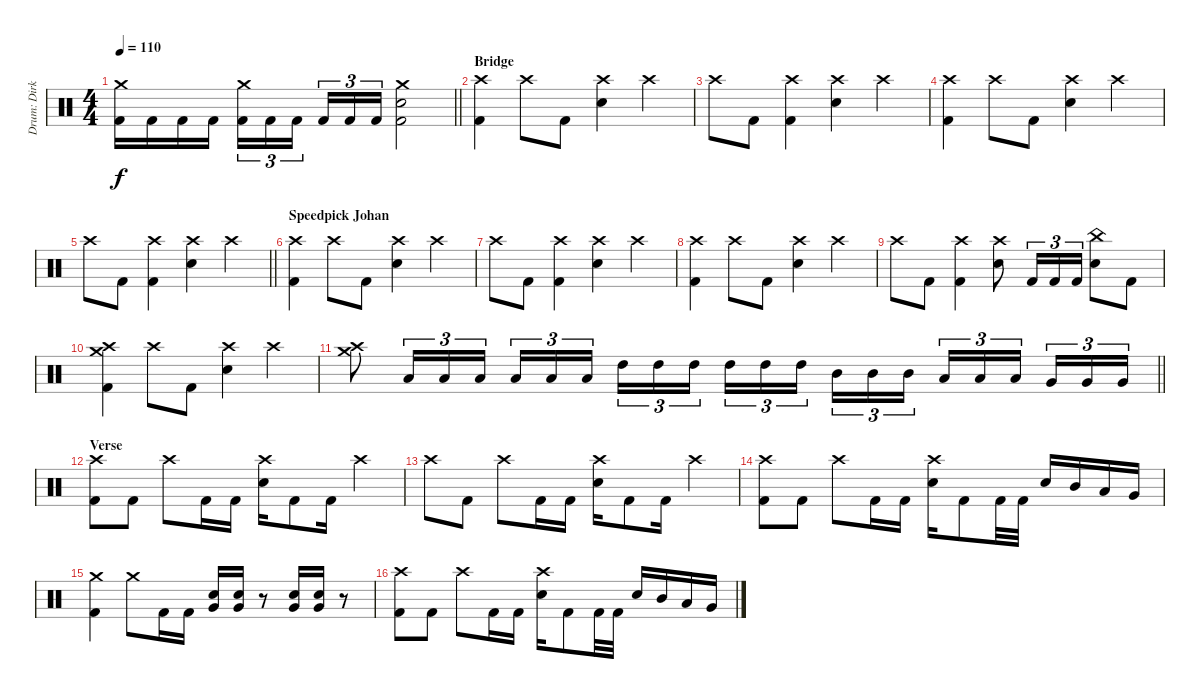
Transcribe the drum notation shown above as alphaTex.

\track ("Drum: Dirk" "Drum: Dirk") {instrument percussion}
\staff {score}
\articulation defaults
\ts (4 4)
\tempo 110
\clef neutral
\barLineRight lightlight
\ks c
("Crash medium (hit)" "Kick (hit) 2").16{dy f} "Kick (hit) 2".16 "Kick (hit) 2".16 "Kick (hit) 2".16 ("Crash medium (hit)" "Kick (hit) 2").16{tu (3 2)} "Kick (hit) 2".16{tu (3 2)} "Kick (hit) 2".16{tu (3 2) beam splitsecondary} "Kick (hit) 2".16{tu (3 2)} "Kick (hit) 2".16{tu (3 2)} "Kick (hit) 2".16{tu (3 2)} ("Crash medium (hit)" "Electric Snare (hit)" "Kick (hit) 2").2 |
\section ("" "Bridge")
("Crash high (hit)" "Kick (hit) 2").4 "Crash high (hit)".8 "Kick (hit) 2".8 ("Crash high (hit)" "Electric Snare (hit)").4 "Crash high (hit)".4 |
"Crash high (hit)".8 "Kick (hit) 2".8 ("Crash high (hit)" "Kick (hit) 2").4 ("Crash high (hit)" "Electric Snare (hit)").4 "Crash high (hit)".4 |
("Crash high (hit)" "Kick (hit) 2").4 "Crash high (hit)".8 "Kick (hit) 2".8 ("Crash high (hit)" "Electric Snare (hit)").4 "Crash high (hit)".4 |
\barLineRight lightlight "Crash high (hit)".8 "Kick (hit) 2".8
("Crash high (hit)" "Kick (hit) 2").4 ("Crash high (hit)" "Electric Snare (hit)").4 "Crash high (hit)".4 |
\section ("" "Speedpick Johan")
("Crash high (hit)" "Kick (hit) 2").4 "Crash high (hit)".8 "Kick (hit) 2".8 ("Crash high (hit)" "Electric Snare (hit)").4 "Crash high (hit)".4 |
"Crash high (hit)".8 "Kick (hit) 2".8 ("Crash high (hit)" "Kick (hit) 2").4 ("Crash high (hit)" "Electric Snare (hit)").4 "Crash high (hit)".4 |
("Crash high (hit)" "Kick (hit) 2").4 "Crash high (hit)".8 "Kick (hit) 2".8 ("Crash high (hit)" "Electric Snare (hit)").4 "Crash high (hit)".4 |
"Crash high (hit)".8 "Kick (hit) 2".8 ("Crash high (hit)" "Kick (hit) 2").4 ("Crash high (hit)" "Electric Snare (hit)").8 "Kick (hit) 2".16{tu (3 2)} "Kick (hit) 2".16{tu (3 2)} "Kick (hit) 2".16{tu (3 2)} ("China (hit)" "Electric Snare (hit)").8 "Kick (hit) 2".8 |
("Crash medium (hit)" "Crash high (hit)" "Kick (hit) 2").4 "Crash high (hit)".8 "Kick (hit) 2".8 ("Crash high (hit)" "Electric Snare (hit)").4 "Crash high (hit)".4 |
\barLineRight lightlight
("Crash medium (hit)" "Crash high (hit)").8 "Low Tom (hit)".16{tu (3 2)} "Low Tom (hit)".16{tu (3 2)} "Low Tom (hit)".16{tu (3 2)} "Low Tom (hit)".16{tu (3 2)} "Low Tom (hit)".16{tu (3 2)} "Low Tom (hit)".16{tu (3 2) beam splitsecondary} "High Tom (hit)".16{tu (3 2)} "High Tom (hit)".16{tu (3 2)} "High Tom (hit)".16{tu (3 2)} "High Tom (hit)".16{tu (3 2)} "High Tom (hit)".16{tu (3 2)} "High Tom (hit)".16{tu (3 2) beam splitsecondary} "Mid Tom (hit)".16{tu (3 2)} "Mid Tom (hit)".16{tu (3 2)} "Mid Tom (hit)".16{tu (3 2)} "Low Tom (hit)".16{tu (3 2)} "Low Tom (hit)".16{tu (3 2)} "Low Tom (hit)".16{tu (3 2) beam splitsecondary} "Very Low Tom (hit)".16{tu (3 2)} "Very Low Tom (hit)".16{tu (3 2)} "Very Low Tom (hit)".16{tu (3 2)} |
\section ("" "Verse")
("Crash high (hit)" "Kick (hit) 2").8 "Kick (hit) 2".8 "Crash high (hit)".8 "Kick (hit) 2".16 "Kick (hit) 2".16 ("Crash high (hit)" "Electric Snare (hit)").16 "Kick (hit) 2".8 "Kick (hit) 2".16 "Crash high (hit)".4 |
"Crash high (hit)".8 "Kick (hit) 2".8 "Crash high (hit)".8 "Kick (hit) 2".16 "Kick (hit) 2".16 ("Crash high (hit)" "Electric Snare (hit)").16 "Kick (hit) 2".8 "Kick (hit) 2".16 "Crash high (hit)".4 |
("Crash high (hit)" "Kick (hit) 2").8 "Kick (hit) 2".8 "Crash high (hit)".8 "Kick (hit) 2".16 "Kick (hit) 2".16 ("Crash high (hit)" "Electric Snare (hit)").16 "Kick (hit) 2".8 "Kick (hit) 2".32 "Kick (hit) 2".32 "Electric Snare (hit)".16 "Mid Tom (hit)".16 "Low Tom (hit)".16 "Very Low Tom (hit)".16 |
("Crash medium (hit)" "Kick (hit) 2").4 "Crash medium (hit)".8 "Kick (hit) 2".16 "Kick (hit) 2".16 ("Electric Snare (hit)" "Very Low Tom (hit)").16 ("Electric Snare (hit)" "Very Low Tom (hit)").16 r.8 ("Electric Snare (hit)" "Very Low Tom (hit)").16 ("Electric Snare (hit)" "Very Low Tom (hit)").16 r.8 |
("Crash high (hit)" "Kick (hit) 2").8 "Kick (hit) 2".8 "Crash high (hit)".8 "Kick (hit) 2".16 "Kick (hit) 2".16 ("Crash high (hit)" "Electric Snare (hit)").16 "Kick (hit) 2".8 "Kick (hit) 2".32 "Kick (hit) 2".32 "Electric Snare (hit)".16 "Mid Tom (hit)".16 "Low Tom (hit)".16 "Very Low Tom (hit)".16
